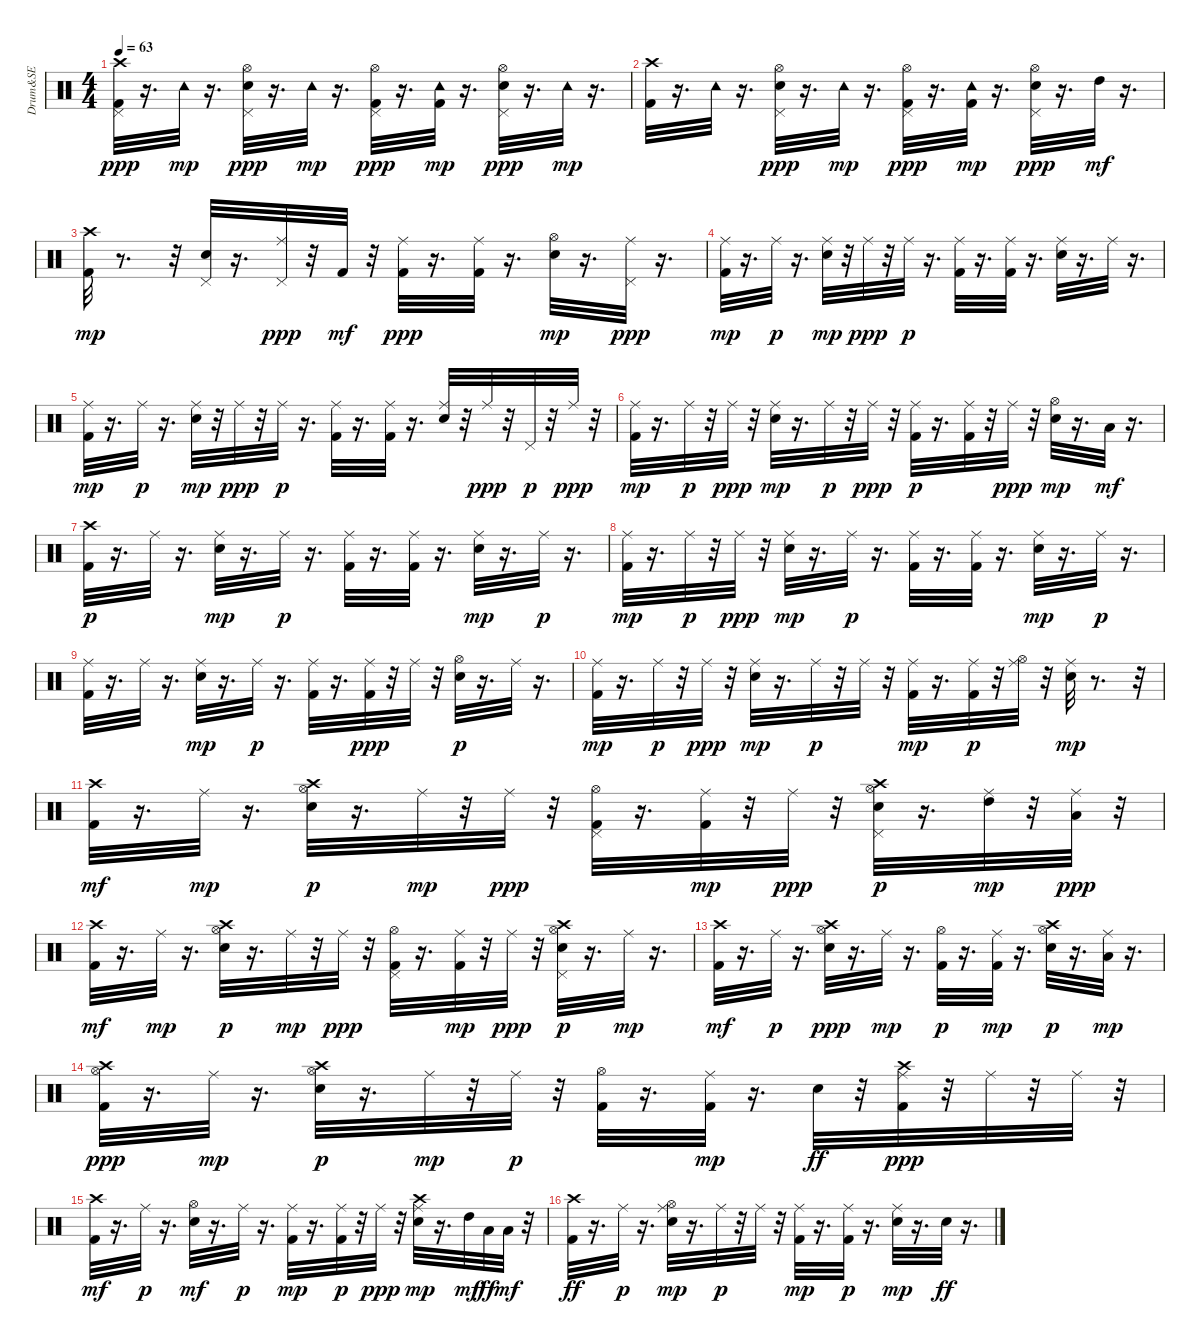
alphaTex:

\track ("Drum&SE" "Drum&SE") {instrument percussion}
\staff {score}
\articulation defaults
\ts (4 4)
\tempo 63
\clef neutral
\ks c
("Kick (hit) 2" "Pedal Hi-Hat (hit)" "Crash high (hit)").32{dy ppp} r.16{d} "Tambourine (hit)".32{dy mp} r.16{d} ("Snare (hit) 2" "Pedal Hi-Hat (hit)" "Hi-Hat (open)").32{dy ppp} r.16{d} "Tambourine (hit)".32{dy mp} r.16{d} ("Kick (hit) 2" "Pedal Hi-Hat (hit)" "Hi-Hat (open)").32{dy ppp} r.16{d} ("Kick (hit) 2" "Tambourine (hit)").32{dy mp} r.16{d} ("Snare (hit) 2" "Pedal Hi-Hat (hit)" "Hi-Hat (open)").32{dy ppp} r.16{d} "Tambourine (hit)".32{dy mp} r.16{d} |
("Kick (hit) 2" "Crash high (hit)").32 r.16{d} "Tambourine (hit)".32 r.16{d} ("Snare (hit) 2" "Pedal Hi-Hat (hit)" "Hi-Hat (open)").32{dy ppp} r.16{d} "Tambourine (hit)".32{dy mp} r.16{d} ("Kick (hit) 2" "Pedal Hi-Hat (hit)" "Hi-Hat (open)").32{dy ppp} r.16{d} ("Kick (hit) 2" "Tambourine (hit)").32{dy mp} r.16{d} ("Snare (hit) 2" "Pedal Hi-Hat (hit)" "Hi-Hat (open)").32{dy ppp} r.16{d} "High Tom (hit)".32{dy mf} r.16{d} |
("Kick (hit) 2" "Crash high (hit)").32{dy mp} r.8{d} r.32 ("Snare (hit) 2" "Pedal Hi-Hat (hit)").32 r.16{d} ("Pedal Hi-Hat (hit)" "Ride (middle)").32{dy ppp} r.32 "Kick (hit) 2".32{dy mf} r.32 ("Kick (hit) 2" "Ride (middle)").32{dy ppp} r.16{d} ("Kick (hit) 2" "Ride (middle)").32 r.16{d} ("Snare (hit) 2" "Hi-Hat (open)").32{dy mp} r.16{d} ("Pedal Hi-Hat (hit)" "Ride (middle)").32{dy ppp} r.16{d} |
("Kick (hit) 2" "Ride (middle)").32{dy mp} r.16{d} "Ride (middle)".32{dy p} r.16{d} ("Snare (hit) 2" "Ride (middle)").32{dy mp} r.32 "Ride (middle)".32{dy ppp} r.32 "Ride (middle)".32{dy p} r.16{d} ("Kick (hit) 2" "Ride (middle)").32 r.16{d} ("Kick (hit) 2" "Ride (middle)").32 r.16{d} ("Snare (hit) 2" "Ride (middle)").32 r.16{d} "Ride (middle)".32 r.16{d} |
("Kick (hit) 2" "Ride (middle)").32{dy mp} r.16{d} "Ride (middle)".32{dy p} r.16{d} ("Snare (hit) 2" "Ride (middle)").32{dy mp} r.32 "Ride (middle)".32{dy ppp} r.32 "Ride (middle)".32{dy p} r.16{d} ("Kick (hit) 2" "Ride (middle)").32 r.16{d} ("Kick (hit) 2" "Ride (middle)").32 r.16{d} ("Snare (hit) 2" "Ride (middle)").32 r.32 "Ride (middle)".32{dy ppp} r.32 "Pedal Hi-Hat (hit)".32{dy p} r.32 "Ride (middle)".32{dy ppp} r.32 |
("Kick (hit) 2" "Ride (middle)").32{dy mp} r.16{d} "Ride (middle)".32{dy p} r.32 "Ride (middle)".32{dy ppp} r.32 ("Snare (hit) 2" "Ride (middle)").32{dy mp} r.16{d} "Ride (middle)".32{dy p} r.32 "Ride (middle)".32{dy ppp} r.32 ("Kick (hit) 2" "Ride (middle)").32{dy p} r.16{d} ("Kick (hit) 2" "Ride (middle)").32 r.32 "Ride (middle)".32{dy ppp} r.32 ("Snare (hit) 2" "Hi-Hat (open)").32{dy mp} r.16{d} "Low Tom (hit)".32{dy mf} r.16{d} |
("Kick (hit) 2" "Crash high (hit)").32{dy p} r.16{d} "Ride (middle)".32 r.16{d} ("Snare (hit) 2" "Ride (middle)").32{dy mp} r.16{d} "Ride (middle)".32{dy p} r.16{d} ("Kick (hit) 2" "Ride (middle)").32 r.16{d} ("Kick (hit) 2" "Ride (middle)").32 r.16{d} ("Snare (hit) 2" "Ride (middle)").32{dy mp} r.16{d} "Ride (middle)".32{dy p} r.16{d} |
("Kick (hit) 2" "Ride (middle)").32{dy mp} r.16{d} "Ride (middle)".32{dy p} r.32 "Ride (middle)".32{dy ppp} r.32 ("Snare (hit) 2" "Ride (middle)").32{dy mp} r.16{d} "Ride (middle)".32{dy p} r.16{d} ("Kick (hit) 2" "Ride (middle)").32 r.16{d} ("Kick (hit) 2" "Ride (middle)").32 r.16{d} ("Snare (hit) 2" "Ride (middle)").32{dy mp} r.16{d} "Ride (middle)".32{dy p} r.16{d} |
("Kick (hit) 2" "Ride (middle)").32 r.16{d} "Ride (middle)".32 r.16{d} ("Snare (hit) 2" "Ride (middle)").32{dy mp} r.16{d} "Ride (middle)".32{dy p} r.16{d} ("Kick (hit) 2" "Ride (middle)").32 r.16{d} ("Kick (hit) 2" "Ride (middle)").32{dy ppp} r.32 "Ride (middle)".32 r.32 ("Snare (hit) 2" "Hi-Hat (open)").32{dy p} r.16{d} "Ride (middle)".32 r.16{d} |
("Kick (hit) 2" "Ride (middle)").32{dy mp} r.16{d} "Ride (middle)".32{dy p} r.32 "Ride (middle)".32{dy ppp} r.32 ("Snare (hit) 2" "Ride (middle)").32{dy mp} r.16{d} "Ride (middle)".32{dy p} r.32 "Ride (middle)".32 r.32 ("Kick (hit) 2" "Ride (middle)").32{dy mp} r.16{d} ("Kick (hit) 2" "Ride (middle)").32{dy p} r.32 ("Hi-Hat (open)" "Ride (middle)").32 r.32 ("Snare (hit) 2" "Ride (middle)").32{dy mp} r.8{d} r.32 |
("Kick (hit) 2" "Crash high (hit)").32{dy mf} r.16{d} "Ride (middle)".32{dy mp} r.16{d} ("Snare (hit) 2" "Hi-Hat (open)" "Crash high (hit)").32{dy p} r.16{d} "Ride (middle)".32{dy mp} r.32 "Ride (middle)".32{dy ppp} r.32 ("Kick (hit) 2" "Pedal Hi-Hat (hit)" "Hi-Hat (open)").32 r.16{d} ("Kick (hit) 2" "Ride (middle)").32{dy mp} r.32 "Ride (middle)".32{dy ppp} r.32 ("Snare (hit) 2" "Pedal Hi-Hat (hit)" "Hi-Hat (open)" "Crash high (hit)").32{dy p} r.16{d} ("High Tom (hit)" "Ride (middle)").32{dy mp} r.32 ("Low Tom (hit)" "Ride (middle)").32{dy ppp} r.32 |
("Kick (hit) 2" "Crash high (hit)").32{dy mf} r.16{d} "Ride (middle)".32{dy mp} r.16{d} ("Snare (hit) 2" "Hi-Hat (open)" "Crash high (hit)").32{dy p} r.16{d} "Ride (middle)".32{dy mp} r.32 "Ride (middle)".32{dy ppp} r.32 ("Kick (hit) 2" "Pedal Hi-Hat (hit)" "Hi-Hat (open)").32 r.16{d} ("Kick (hit) 2" "Ride (middle)").32{dy mp} r.32 "Ride (middle)".32{dy ppp} r.32 ("Snare (hit) 2" "Pedal Hi-Hat (hit)" "Hi-Hat (open)" "Crash high (hit)").32{dy p} r.16{d} "Ride (middle)".32{dy mp} r.16{d} |
("Kick (hit) 2" "Crash high (hit)").32{dy mf} r.16{d} "Ride (middle)".32{dy p} r.16{d} ("Snare (hit) 2" "Hi-Hat (open)" "Crash high (hit)").32{dy ppp} r.16{d} "Ride (middle)".32{dy mp} r.16{d} ("Kick (hit) 2" "Hi-Hat (open)").32{dy p} r.16{d} ("Kick (hit) 2" "Ride (middle)").32{dy mp} r.16{d} ("Snare (hit) 2" "Hi-Hat (open)" "Crash high (hit)").32{dy p} r.16{d} ("Low Tom (hit)" "Ride (middle)").32{dy mp} r.16{d} |
("Kick (hit) 2" "Hi-Hat (open)" "Crash high (hit)").32{dy ppp} r.16{d} "Ride (middle)".32{dy mp} r.16{d} ("Hi-Hat (open)" "Snare (hit) 2" "Crash high (hit)").32{dy p} r.16{d} "Ride (middle)".32{dy mp} r.32 "Ride (middle)".32{dy p} r.32 ("Kick (hit) 2" "Hi-Hat (open)").32 r.16{d} ("Kick (hit) 2" "Ride (middle)").32{dy mp} r.16{d} "Snare (hit) 2".32{dy ff} r.32 ("Kick (hit) 2" "Crash high (hit)" "Ride (middle)").32{dy ppp} r.32 "Ride (middle)".32 r.32 "Ride (middle)".32 r.32 |
("Kick (hit) 2" "Crash high (hit)").32{dy mf} r.16{d} "Ride (middle)".32{dy p} r.16{d} ("Snare (hit) 2" "Hi-Hat (open)").32{dy mf} r.16{d} "Ride (middle)".32{dy p} r.16{d} ("Kick (hit) 2" "Ride (middle)").32{dy mp} r.16{d} ("Kick (hit) 2" "Ride (middle)").32{dy p} r.32 "Ride (middle)".32{dy ppp} r.32 ("Snare (hit) 2" "Crash high (hit)" "Ride (middle)").32{dy mp} r.16{d} "High Tom (hit)".32{dy mf} "Low Tom (hit)".32{dy ff} "Low Floor Tom (hit)".32{dy mf} r.32 |
("Kick (hit) 2" "Crash high (hit)").32{dy ff} r.16{d} "Ride (middle)".32{dy p} r.16{d} ("Snare (hit) 2" "Hi-Hat (open)" "Ride (middle)").32{dy mp} r.16{d} "Ride (middle)".32{dy p} r.32 "Ride (middle)".32 r.32 ("Kick (hit) 2" "Ride (middle)").32{dy mp} r.16{d} ("Kick (hit) 2" "Ride (middle)").32{dy p} r.16{d} ("Snare (hit) 2" "Ride (middle)").32{dy mp} r.16{d} "Snare (hit) 2".32{dy ff} r.16{d}
